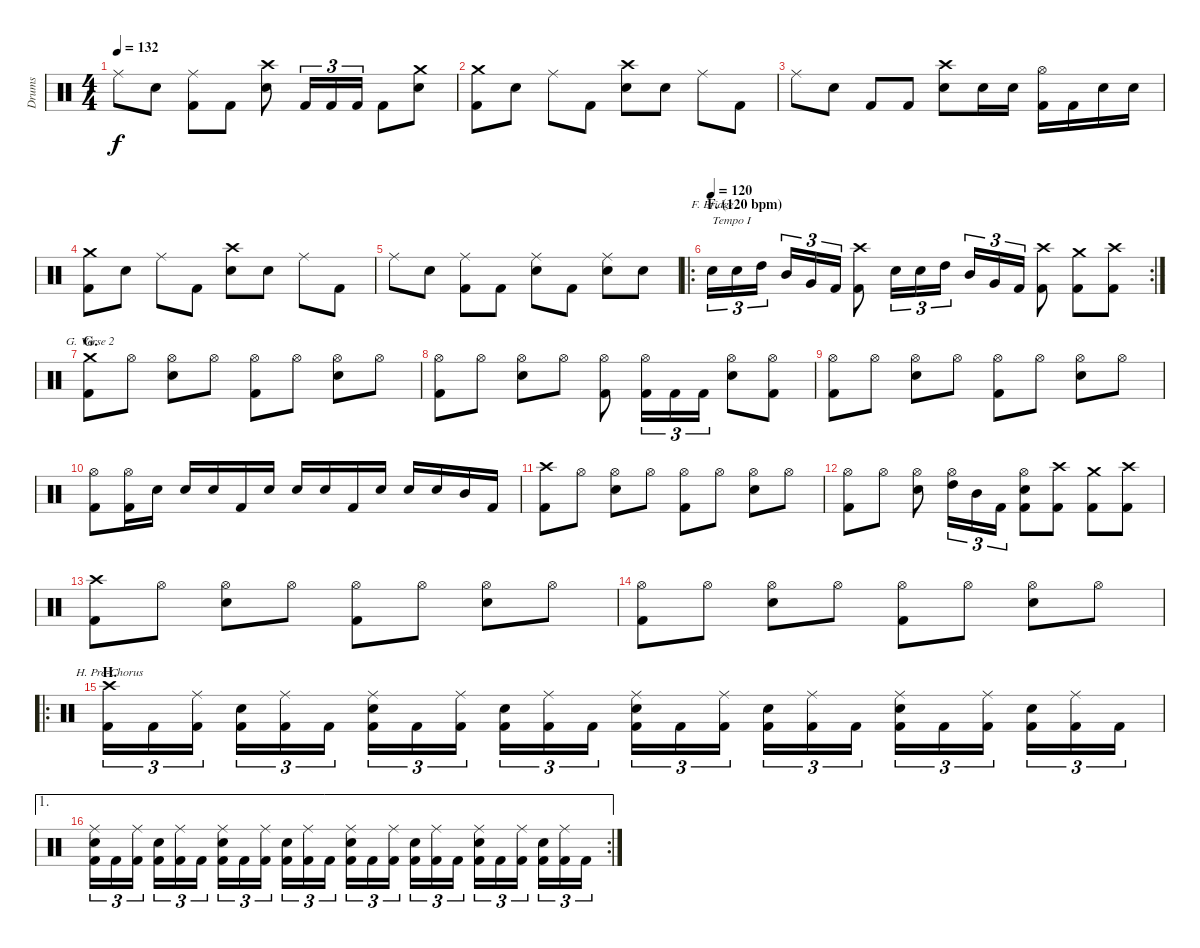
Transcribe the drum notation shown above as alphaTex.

\track ("Drums" "Drums") {instrument percussion}
\staff {score}
\articulation defaults
\chord ("F. Bridge") {firstfret 0}
\chord ("G. Verse 2") {firstfret 0}
\chord ("H. Pre-Chorus") {firstfret 0}
\ts (4 4)
\tempo 132
\clef neutral
\ks c "Ride (middle)".8{dy f} "Snare (hit) 2".8
("Ride (middle)" "Kick (hit) 2").8 "Kick (hit) 2".8 ("Crash high (hit)" "Snare (hit) 2").8 "Kick (hit) 2".16{tu (3 2)} "Kick (hit) 2".16{tu (3 2)} "Kick (hit) 2".16{tu (3 2)} "Kick (hit) 2".8 ("Crash medium (hit)" "Snare (hit) 2").8 |
("Crash medium (hit)" "Kick (hit) 2").8 "Snare (hit) 2".8 "Ride (middle)".8 "Kick (hit) 2".8 ("Crash high (hit)" "Snare (hit) 2").8 "Snare (hit) 2".8 "Ride (middle)".8 "Kick (hit) 2".8 |
"Ride (middle)".8 "Snare (hit) 2".8 "Kick (hit) 2".8 "Kick (hit) 2".8 ("Crash high (hit)" "Snare (hit) 2").8 "Snare (hit) 2".16 "Snare (hit) 2".16 ("Hi-Hat (open)" "Kick (hit) 2").16 "Kick (hit) 2".16 "Snare (hit) 2".16 "Snare (hit) 2".16 |
("Crash medium (hit)" "Kick (hit) 2").8 "Snare (hit) 2".8 "Ride (middle)".8 "Kick (hit) 2".8 ("Crash high (hit)" "Snare (hit) 2").8 "Snare (hit) 2".8 "Ride (middle)".8 "Kick (hit) 2".8 |
"Ride (middle)".8 "Snare (hit) 2".8 ("Ride (middle)" "Kick (hit) 2").8 "Kick (hit) 2".8 ("Ride (middle)" "Snare (hit) 2").8 "Kick (hit) 2".8 ("Ride (middle)" "Snare (hit) 2").8 "Snare (hit) 2".8 |
\ro
\rc 2
\section ("" "F. (120 bpm)")
\tempo (120)
"Snare (hit) 2".16{tu (3 2) ch "F. Bridge" txt "Tempo I"} "Snare (hit) 2".16{tu (3 2)} "High Tom (hit)".16{tu (3 2)} "Mid Tom (hit)".16{tu (3 2)} "Very Low Tom (hit)".16{tu (3 2)} "Kick (hit) 2".16{tu (3 2)} ("Crash high (hit)" "Kick (hit) 2").8 "Snare (hit) 2".16{tu (3 2)} "Snare (hit) 2".16{tu (3 2)} "High Tom (hit)".16{tu (3 2)} "Mid Tom (hit)".16{tu (3 2)} "Very Low Tom (hit)".16{tu (3 2)} "Kick (hit) 2".16{tu (3 2)} ("Crash high (hit)" "Kick (hit) 2").8 ("Crash medium (hit)" "Kick (hit) 2").8 ("Crash high (hit)" "Kick (hit) 2").8 |
\section ("" "G.")
("Crash medium (hit)" "Kick (hit) 2").8{ch "G. Verse 2"} "Hi-Hat (open)".8 ("Hi-Hat (open)" "Snare (hit) 2").8 "Hi-Hat (open)".8 ("Hi-Hat (open)" "Kick (hit) 2").8 "Hi-Hat (open)".8 ("Hi-Hat (open)" "Snare (hit) 2").8 "Hi-Hat (open)".8 |
("Hi-Hat (open)" "Kick (hit) 2").8 "Hi-Hat (open)".8 ("Hi-Hat (open)" "Snare (hit) 2").8 "Hi-Hat (open)".8 ("Hi-Hat (open)" "Kick (hit) 2").8 ("Hi-Hat (open)" "Kick (hit) 2").16{tu (3 2)} "Kick (hit) 2".16{tu (3 2)} "Kick (hit) 2".16{tu (3 2)} ("Hi-Hat (open)" "Snare (hit) 2").8 ("Hi-Hat (open)" "Kick (hit) 2").8 |
("Hi-Hat (open)" "Kick (hit) 2").8 "Hi-Hat (open)".8 ("Hi-Hat (open)" "Snare (hit) 2").8 "Hi-Hat (open)".8 ("Hi-Hat (open)" "Kick (hit) 2").8 "Hi-Hat (open)".8 ("Hi-Hat (open)" "Snare (hit) 2").8 "Hi-Hat (open)".8 |
("Hi-Hat (open)" "Kick (hit) 2").8 ("Hi-Hat (open)" "Kick (hit) 2").16 "Snare (hit) 2".16 "Snare (hit) 2".16 "Snare (hit) 2".16 "Kick (hit) 2".16 "Snare (hit) 2".16 "Snare (hit) 2".16 "Snare (hit) 2".16 "Kick (hit) 2".16 "Snare (hit) 2".16 "Snare (hit) 2".16 "Snare (hit) 2".16 "Mid Tom (hit)".16 "Kick (hit) 2".16 |
("Crash high (hit)" "Kick (hit) 2").8 "Hi-Hat (open)".8 ("Hi-Hat (open)" "Snare (hit) 2").8 "Hi-Hat (open)".8 ("Hi-Hat (open)" "Kick (hit) 2").8 "Hi-Hat (open)".8 ("Hi-Hat (open)" "Snare (hit) 2").8 "Hi-Hat (open)".8 |
("Hi-Hat (open)" "Kick (hit) 2").8 "Hi-Hat (open)".8 ("Hi-Hat (open)" "Snare (hit) 2").8 ("Hi-Hat (open)" "High Tom (hit)").16{tu (3 2)} "Mid Tom (hit)".16{tu (3 2)} "Kick (hit) 2".16{tu (3 2)} ("Hi-Hat (open)" "Snare (hit) 2" "Kick (hit) 2").8 ("Crash high (hit)" "Kick (hit) 2").8 ("Crash medium (hit)" "Kick (hit) 2").8 ("Crash high (hit)" "Kick (hit) 2").8 |
("Crash high (hit)" "Kick (hit) 2").8 "Hi-Hat (open)".8 ("Hi-Hat (open)" "Snare (hit) 2").8 "Hi-Hat (open)".8 ("Hi-Hat (open)" "Kick (hit) 2").8 "Hi-Hat (open)".8 ("Hi-Hat (open)" "Snare (hit) 2").8 "Hi-Hat (open)".8 |
("Hi-Hat (open)" "Kick (hit) 2").8 "Hi-Hat (open)".8 ("Hi-Hat (open)" "Snare (hit) 2").8 "Hi-Hat (open)".8 ("Hi-Hat (open)" "Kick (hit) 2").8 "Hi-Hat (open)".8 ("Hi-Hat (open)" "Snare (hit) 2").8 "Hi-Hat (open)".8 |
\ro
\section ("" "H.")
("Crash high (hit)" "Kick (hit) 2").16{tu (3 2) ch "H. Pre-Chorus"} "Kick (hit) 2".16{tu (3 2)} ("Ride (middle)" "Kick (hit) 2").16{tu (3 2)} ("Snare (hit) 2" "Kick (hit) 2").16{tu (3 2)} ("Ride (middle)" "Kick (hit) 2").16{tu (3 2)} "Kick (hit) 2".16{tu (3 2)} ("Ride (middle)" "Snare (hit) 2" "Kick (hit) 2").16{tu (3 2)} "Kick (hit) 2".16{tu (3 2)} ("Ride (middle)" "Kick (hit) 2").16{tu (3 2)} ("Snare (hit) 2" "Kick (hit) 2").16{tu (3 2)} ("Ride (middle)" "Kick (hit) 2").16{tu (3 2)} "Kick (hit) 2".16{tu (3 2)} ("Ride (middle)" "Snare (hit) 2" "Kick (hit) 2").16{tu (3 2)} "Kick (hit) 2".16{tu (3 2)} ("Ride (middle)" "Kick (hit) 2").16{tu (3 2)} ("Snare (hit) 2" "Kick (hit) 2").16{tu (3 2)} ("Ride (middle)" "Kick (hit) 2").16{tu (3 2)} "Kick (hit) 2".16{tu (3 2)} ("Ride (middle)" "Snare (hit) 2" "Kick (hit) 2").16{tu (3 2)} "Kick (hit) 2".16{tu (3 2)} ("Ride (middle)" "Kick (hit) 2").16{tu (3 2)} ("Snare (hit) 2" "Kick (hit) 2").16{tu (3 2)} ("Ride (middle)" "Kick (hit) 2").16{tu (3 2)} "Kick (hit) 2".16{tu (3 2)} |
\ae 1
\rc 2
("Ride (middle)" "Snare (hit) 2" "Kick (hit) 2").16{tu (3 2)} "Kick (hit) 2".16{tu (3 2)} ("Ride (middle)" "Kick (hit) 2").16{tu (3 2)} ("Snare (hit) 2" "Kick (hit) 2").16{tu (3 2)} ("Ride (middle)" "Kick (hit) 2").16{tu (3 2)} "Kick (hit) 2".16{tu (3 2)} ("Ride (middle)" "Snare (hit) 2" "Kick (hit) 2").16{tu (3 2)} "Kick (hit) 2".16{tu (3 2)} ("Ride (middle)" "Kick (hit) 2").16{tu (3 2)} ("Snare (hit) 2" "Kick (hit) 2").16{tu (3 2)} ("Ride (middle)" "Kick (hit) 2").16{tu (3 2)} "Kick (hit) 2".16{tu (3 2)} ("Ride (middle)" "Snare (hit) 2" "Kick (hit) 2").16{tu (3 2)} "Kick (hit) 2".16{tu (3 2)} ("Ride (middle)" "Kick (hit) 2").16{tu (3 2)} ("Snare (hit) 2" "Kick (hit) 2").16{tu (3 2)} ("Ride (middle)" "Kick (hit) 2").16{tu (3 2)} "Kick (hit) 2".16{tu (3 2)} ("Ride (middle)" "Snare (hit) 2" "Kick (hit) 2").16{tu (3 2)} "Kick (hit) 2".16{tu (3 2)} ("Ride (middle)" "Kick (hit) 2").16{tu (3 2)} ("Snare (hit) 2" "Kick (hit) 2").16{tu (3 2)} ("Ride (middle)" "Kick (hit) 2").16{tu (3 2)} "Kick (hit) 2".16{tu (3 2)}
